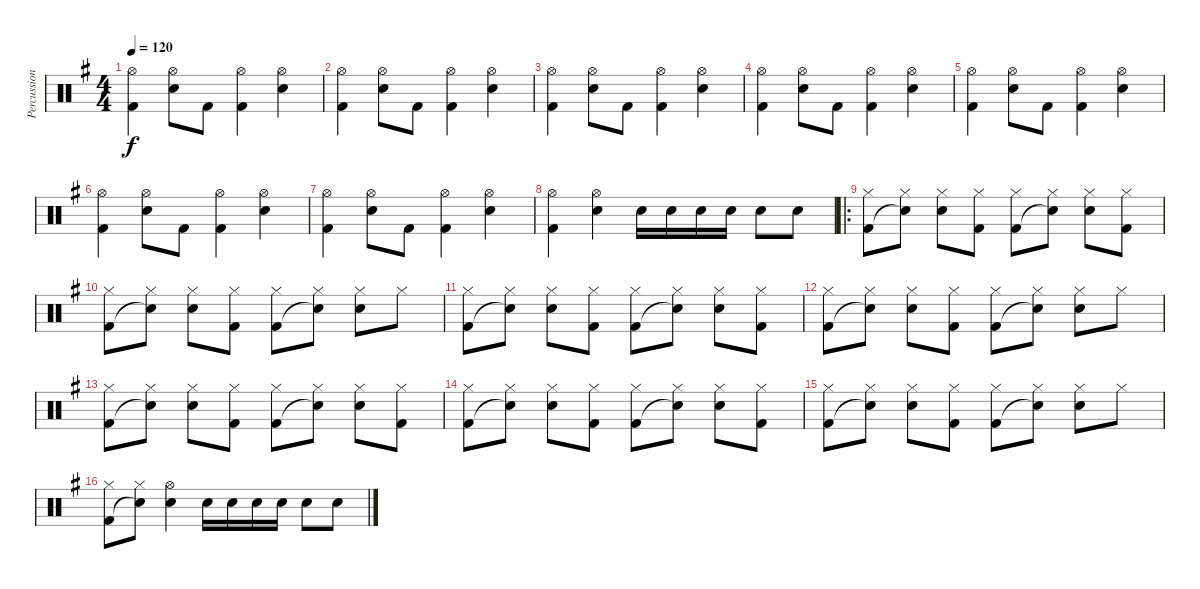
\track ("Percussion" "Percussion") {instrument percussion}
\staff {score}
\articulation defaults
\ts (4 4)
\tempo 120
\clef neutral
\ks g
("Hi-Hat (open)" "Kick (hit) 2").4{dy f} ("Hi-Hat (open)" "Snare (hit) 2").8 "Kick (hit) 2".8 ("Hi-Hat (open)" "Kick (hit) 2").4 ("Hi-Hat (open)" "Snare (hit) 2").4 |
("Hi-Hat (open)" "Kick (hit) 2").4 ("Hi-Hat (open)" "Snare (hit) 2").8 "Kick (hit) 2".8 ("Hi-Hat (open)" "Kick (hit) 2").4 ("Hi-Hat (open)" "Snare (hit) 2").4 |
("Hi-Hat (open)" "Kick (hit) 2").4 ("Hi-Hat (open)" "Snare (hit) 2").8 "Kick (hit) 2".8 ("Hi-Hat (open)" "Kick (hit) 2").4 ("Hi-Hat (open)" "Snare (hit) 2").4 |
("Hi-Hat (open)" "Kick (hit) 2").4 ("Hi-Hat (open)" "Snare (hit) 2").8 "Kick (hit) 2".8 ("Hi-Hat (open)" "Kick (hit) 2").4 ("Hi-Hat (open)" "Snare (hit) 2").4 |
("Hi-Hat (open)" "Kick (hit) 2").4 ("Hi-Hat (open)" "Snare (hit) 2").8 "Kick (hit) 2".8 ("Hi-Hat (open)" "Kick (hit) 2").4 ("Hi-Hat (open)" "Snare (hit) 2").4 |
("Hi-Hat (open)" "Kick (hit) 2").4 ("Hi-Hat (open)" "Snare (hit) 2").8 "Kick (hit) 2".8 ("Hi-Hat (open)" "Kick (hit) 2").4 ("Hi-Hat (open)" "Snare (hit) 2").4 |
("Hi-Hat (open)" "Kick (hit) 2").4 ("Hi-Hat (open)" "Snare (hit) 2").8 "Kick (hit) 2".8 ("Hi-Hat (open)" "Kick (hit) 2").4 ("Hi-Hat (open)" "Snare (hit) 2").4 |
("Hi-Hat (open)" "Kick (hit) 2").4 ("Hi-Hat (open)" "Snare (hit) 2").4 "Snare (hit) 2".16 "Snare (hit) 2".16 "Snare (hit) 2".16 "Snare (hit) 2".16 "Snare (hit) 2".8 "Snare (hit) 2".8 |
\ro
("Hi-Hat (closed)" "Kick (hit) 2").8 ("Hi-Hat (closed)" "Snare (hit)"{t}).8 ("Hi-Hat (closed)" "Snare (hit) 2").8 ("Hi-Hat (closed)" "Kick (hit) 2").8 ("Hi-Hat (closed)" "Kick (hit) 2").8 ("Hi-Hat (closed)" "Snare (hit)"{t}).8 ("Hi-Hat (closed)" "Snare (hit) 2").8 ("Hi-Hat (closed)" "Kick (hit) 2").8 |
("Hi-Hat (closed)" "Kick (hit) 2").8 ("Hi-Hat (closed)" "Snare (hit)"{t}).8 ("Hi-Hat (closed)" "Snare (hit) 2").8 ("Hi-Hat (closed)" "Kick (hit) 2").8 ("Hi-Hat (closed)" "Kick (hit) 2").8 ("Hi-Hat (closed)" "Snare (hit)"{t}).8 ("Hi-Hat (closed)" "Snare (hit) 2").8 "Hi-Hat (closed)".8 |
("Hi-Hat (closed)" "Kick (hit) 2").8 ("Hi-Hat (closed)" "Snare (hit)"{t}).8 ("Hi-Hat (closed)" "Snare (hit) 2").8 ("Hi-Hat (closed)" "Kick (hit) 2").8 ("Hi-Hat (closed)" "Kick (hit) 2").8 ("Hi-Hat (closed)" "Snare (hit)"{t}).8 ("Hi-Hat (closed)" "Snare (hit) 2").8 ("Hi-Hat (closed)" "Kick (hit) 2").8 |
("Hi-Hat (closed)" "Kick (hit) 2").8 ("Hi-Hat (closed)" "Snare (hit)"{t}).8 ("Hi-Hat (closed)" "Snare (hit) 2").8 ("Hi-Hat (closed)" "Kick (hit) 2").8 ("Hi-Hat (closed)" "Kick (hit) 2").8 ("Hi-Hat (closed)" "Snare (hit)"{t}).8 ("Hi-Hat (closed)" "Snare (hit) 2").8 "Hi-Hat (closed)".8 |
("Hi-Hat (closed)" "Kick (hit) 2").8 ("Hi-Hat (closed)" "Snare (hit)"{t}).8 ("Hi-Hat (closed)" "Snare (hit) 2").8 ("Hi-Hat (closed)" "Kick (hit) 2").8 ("Hi-Hat (closed)" "Kick (hit) 2").8 ("Hi-Hat (closed)" "Snare (hit)"{t}).8 ("Hi-Hat (closed)" "Snare (hit) 2").8 ("Hi-Hat (closed)" "Kick (hit) 2").8 |
("Hi-Hat (closed)" "Kick (hit) 2").8 ("Hi-Hat (closed)" "Snare (hit)"{t}).8 ("Hi-Hat (closed)" "Snare (hit) 2").8 ("Hi-Hat (closed)" "Kick (hit) 2").8 ("Hi-Hat (closed)" "Kick (hit) 2").8 ("Hi-Hat (closed)" "Snare (hit)"{t}).8 ("Hi-Hat (closed)" "Snare (hit) 2").8 ("Hi-Hat (closed)" "Kick (hit) 2").8 |
("Hi-Hat (closed)" "Kick (hit) 2").8 ("Hi-Hat (closed)" "Snare (hit)"{t}).8 ("Hi-Hat (closed)" "Snare (hit) 2").8 ("Hi-Hat (closed)" "Kick (hit) 2").8 ("Hi-Hat (closed)" "Kick (hit) 2").8 ("Hi-Hat (closed)" "Snare (hit)"{t}).8 ("Hi-Hat (closed)" "Snare (hit) 2").8 "Hi-Hat (closed)".8 |
("Hi-Hat (closed)" "Kick (hit) 2").8 ("Hi-Hat (closed)" "Snare (hit)"{t}).8 ("Hi-Hat (open)" "Snare (hit) 2").4 "Snare (hit) 2".16 "Snare (hit) 2".16 "Snare (hit) 2".16 "Snare (hit) 2".16 "Snare (hit) 2".8 "Snare (hit) 2".8
